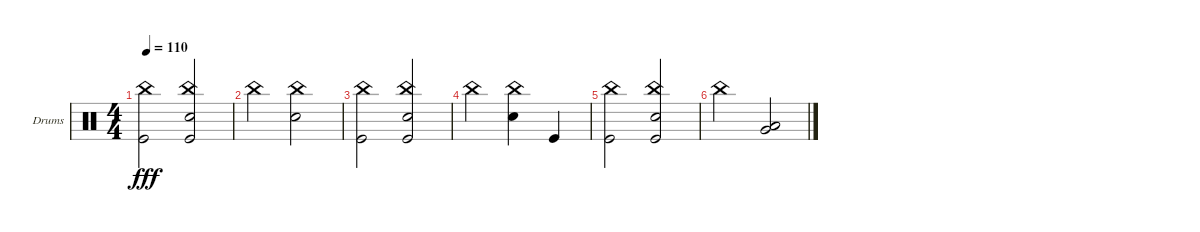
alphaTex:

\bracketExtendMode groupsimilarinstruments
\firstSystemTrackNameOrientation horizontal
\otherSystemsTrackNameOrientation horizontal
\track ("Drumkit" "Drums") {instrument percussion}
\staff {score}
\articulation defaults
\ts (4 4)
\tempo 110
\clef neutral
\ks c
("Kick (hit)" "China (hit)").2{dy fff} ("China (hit)" "Kick (hit)" "Snare (hit) 2").2 |
"China (hit)".2 ("China (hit)" "Snare (hit) 2").2 |
("Kick (hit)" "China (hit)").2 ("Kick (hit)" "China (hit)" "Snare (hit) 2").2 |
"China (hit)".2 ("China (hit)" "Snare (hit) 2").4 "Kick (hit)".4 |
("Kick (hit)" "China (hit)").2 ("China (hit)" "Kick (hit)" "Snare (hit) 2").2 |
"China (hit)".2 ("Very Low Tom (hit)" "Low Tom (hit)").2
